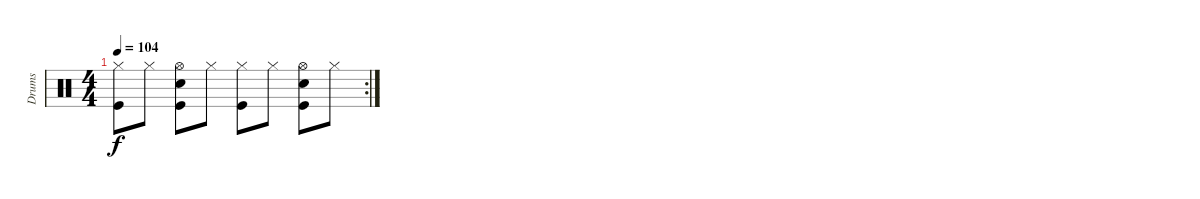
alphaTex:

\track ("Drums" "Drums") {instrument percussion}
\staff {score}
\articulation defaults
\rc 2
\ts (4 4)
\tempo 104
\clef neutral
\ks c
("Hi-Hat (closed)" "Kick (hit)").8{dy f} "Hi-Hat (closed)".8 ("Snare (hit) 2" "Hi-Hat (open)" "Kick (hit)").8 "Hi-Hat (closed)".8 ("Hi-Hat (closed)" "Kick (hit)").8 "Hi-Hat (closed)".8 ("Snare (hit) 2" "Hi-Hat (open)" "Kick (hit)").8 "Hi-Hat (closed)".8
